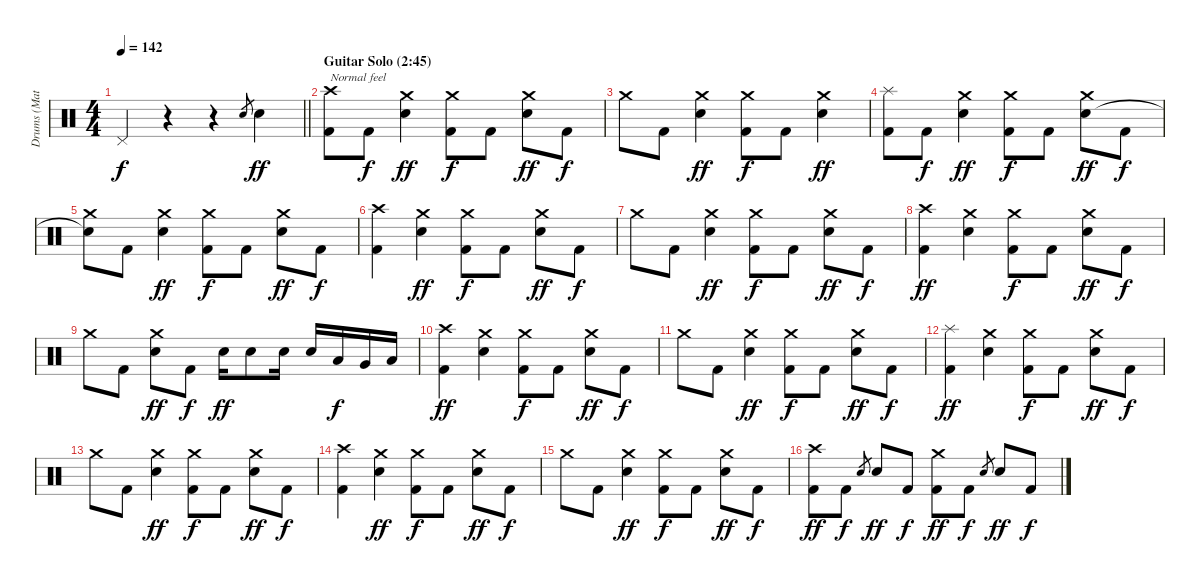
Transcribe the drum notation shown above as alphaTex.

\track ("Drums (Matt Sorum)" "Drums (Mat") {instrument percussion}
\staff {score}
\articulation defaults
\ts (4 4)
\tempo 142
\clef neutral
\barLineRight lightlight
\ks c "Pedal Hi-Hat (hit)".4{dy f}
r.4 r.4 "Snare (hit) 2".8{gr} "Snare (hit) 2".4{dy ff} |
\section ("" "Guitar Solo (2:45)")
("Crash high (hit)" "Kick (hit) 2").8{txt "Normal feel"} "Kick (hit) 2".8{dy f} ("Crash medium (hit)" "Snare (hit) 2").4{dy ff} ("Crash medium (hit)" "Kick (hit) 2").8{dy f} "Kick (hit) 2".8 ("Crash medium (hit)" "Snare (hit) 2").8{dy ff} "Kick (hit) 2".8{dy f} |
"Crash medium (hit)".8 "Kick (hit) 2".8 ("Crash medium (hit)" "Snare (hit) 2").4{dy ff} ("Crash medium (hit)" "Kick (hit) 2").8{dy f} "Kick (hit) 2".8 ("Crash medium (hit)" "Snare (hit) 2").4{dy ff} |
("Splash (hit)" "Kick (hit) 2").8 "Kick (hit) 2".8{dy f} ("Crash medium (hit)" "Snare (hit) 2").4{dy ff} ("Crash medium (hit)" "Kick (hit) 2").8{dy f} "Kick (hit) 2".8 ("Crash medium (hit)" "Snare (hit) 2").8{dy ff} "Kick (hit) 2".8{dy f} |
("Crash medium (hit)" "Snare (hit)"{t}).8 "Kick (hit) 2".8 ("Crash medium (hit)" "Snare (hit) 2").4{dy ff} ("Crash medium (hit)" "Kick (hit) 2").8{dy f} "Kick (hit) 2".8 ("Crash medium (hit)" "Snare (hit) 2").8{dy ff} "Kick (hit) 2".8{dy f} |
("Crash high (hit)" "Kick (hit) 2").4 ("Crash medium (hit)" "Snare (hit) 2").4{dy ff} ("Crash medium (hit)" "Kick (hit) 2").8{dy f} "Kick (hit) 2".8 ("Crash medium (hit)" "Snare (hit) 2").8{dy ff} "Kick (hit) 2".8{dy f} |
"Crash medium (hit)".8 "Kick (hit) 2".8 ("Crash medium (hit)" "Snare (hit) 2").4{dy ff} ("Crash medium (hit)" "Kick (hit) 2").8{dy f} "Kick (hit) 2".8 ("Crash medium (hit)" "Snare (hit) 2").8{dy ff} "Kick (hit) 2".8{dy f} |
("Crash high (hit)" "Kick (hit) 2").4{dy ff} ("Crash medium (hit)" "Snare (hit) 2").4 ("Crash medium (hit)" "Kick (hit) 2").8{dy f} "Kick (hit) 2".8 ("Crash medium (hit)" "Snare (hit) 2").8{dy ff} "Kick (hit) 2".8{dy f} |
"Crash medium (hit)".8 "Kick (hit) 2".8 ("Crash medium (hit)" "Snare (hit) 2").8{dy ff} "Kick (hit) 2".8{dy f} "Snare (hit) 2".16{dy ff} "Snare (hit) 2".8 "Snare (hit) 2".16 "Snare (hit) 2".16 "Low Tom (hit)".16{dy f} "Very Low Tom (hit)".16 "Low Floor Tom (hit)".16 |
("Crash high (hit)" "Kick (hit) 2").4{dy ff} ("Crash medium (hit)" "Snare (hit) 2").4 ("Crash medium (hit)" "Kick (hit) 2").8{dy f} "Kick (hit) 2".8 ("Crash medium (hit)" "Snare (hit) 2").8{dy ff} "Kick (hit) 2".8{dy f} |
"Crash medium (hit)".8 "Kick (hit) 2".8 ("Crash medium (hit)" "Snare (hit) 2").4{dy ff} ("Crash medium (hit)" "Kick (hit) 2").8{dy f} "Kick (hit) 2".8 ("Crash medium (hit)" "Snare (hit) 2").8{dy ff} "Kick (hit) 2".8{dy f} |
("Splash (hit)" "Kick (hit) 2").4{dy ff} ("Crash medium (hit)" "Snare (hit) 2").4 ("Crash medium (hit)" "Kick (hit) 2").8{dy f} "Kick (hit) 2".8 ("Crash medium (hit)" "Snare (hit) 2").8{dy ff} "Kick (hit) 2".8{dy f} |
"Crash medium (hit)".8 "Kick (hit) 2".8 ("Crash medium (hit)" "Snare (hit) 2").4{dy ff} ("Crash medium (hit)" "Kick (hit) 2").8{dy f} "Kick (hit) 2".8 ("Crash medium (hit)" "Snare (hit) 2").8{dy ff} "Kick (hit) 2".8{dy f} |
("Crash high (hit)" "Kick (hit) 2").4 ("Crash medium (hit)" "Snare (hit) 2").4{dy ff} ("Crash medium (hit)" "Kick (hit) 2").8{dy f} "Kick (hit) 2".8 ("Crash medium (hit)" "Snare (hit) 2").8{dy ff} "Kick (hit) 2".8{dy f} |
"Crash medium (hit)".8 "Kick (hit) 2".8 ("Crash medium (hit)" "Snare (hit) 2").4{dy ff} ("Crash medium (hit)" "Kick (hit) 2").8{dy f} "Kick (hit) 2".8 ("Crash medium (hit)" "Snare (hit) 2").8{dy ff} "Kick (hit) 2".8{dy f} |
("Crash high (hit)" "Kick (hit) 2").8{dy ff} "Kick (hit) 2".8{dy f} "Snare (hit) 2".8{gr} "Snare (hit) 2".8{dy ff} "Kick (hit) 2".8{dy f} ("Crash medium (hit)" "Kick (hit) 2").8{dy ff} "Kick (hit) 2".8{dy f} "Snare (hit) 2".8{gr} "Snare (hit) 2".8{dy ff} "Kick (hit) 2".8{dy f}
